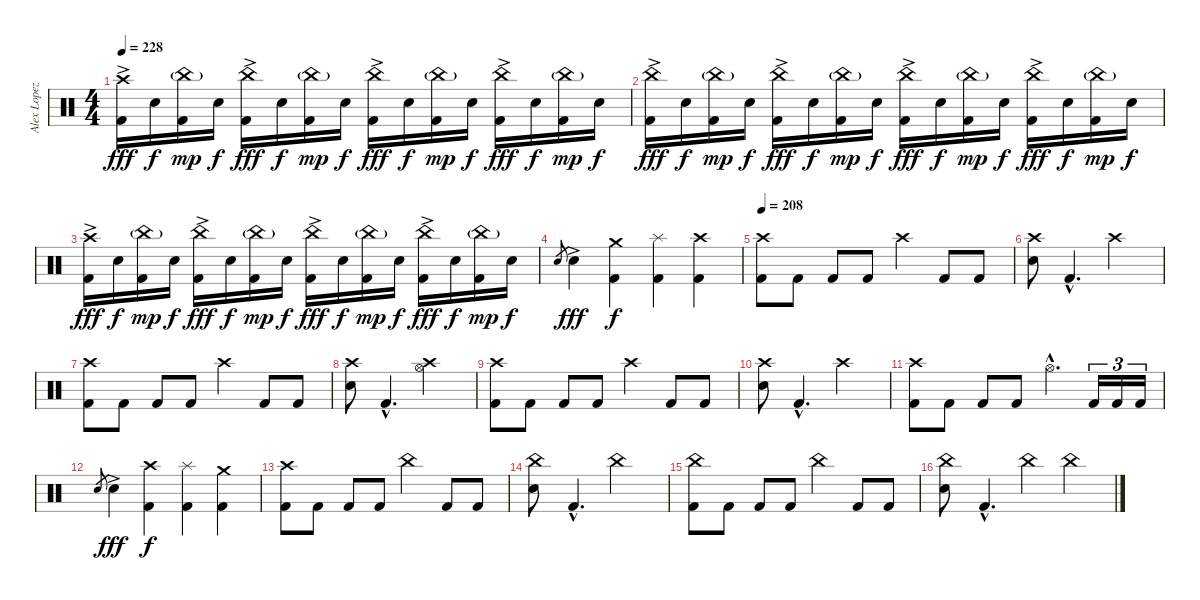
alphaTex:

\track ("Alex Lopez (Drums)" "Alex Lopez") {instrument percussion}
\staff {score}
\articulation defaults
\ts (4 4)
\tempo 228
\clef neutral
\ks c
("Crash high (hit)"{ac} "Kick (hit) 2").16{dy fff} "Snare (hit) 2".16{dy f} ("Kick (hit) 2" "China (hit)"{g}).16{dy mp} "Snare (hit) 2".16{dy f} ("China (hit)"{ac} "Kick (hit) 2").16{dy fff} "Snare (hit) 2".16{dy f} ("Kick (hit) 2" "China (hit)"{g}).16{dy mp} "Snare (hit) 2".16{dy f} ("China (hit)"{ac} "Kick (hit) 2").16{dy fff} "Snare (hit) 2".16{dy f} ("China (hit)"{g} "Kick (hit) 2").16{dy mp} "Snare (hit) 2".16{dy f} ("China (hit)"{ac} "Kick (hit) 2").16{dy fff} "Snare (hit) 2".16{dy f} ("Kick (hit) 2" "China (hit)"{g}).16{dy mp} "Snare (hit) 2".16{dy f} |
("China (hit)"{ac} "Kick (hit) 2").16{dy fff} "Snare (hit) 2".16{dy f} ("Kick (hit) 2" "China (hit)"{g}).16{dy mp} "Snare (hit) 2".16{dy f} ("China (hit)"{ac} "Kick (hit) 2").16{dy fff} "Snare (hit) 2".16{dy f} ("Kick (hit) 2" "China (hit)"{g}).16{dy mp} "Snare (hit) 2".16{dy f} ("China (hit)"{ac} "Kick (hit) 2").16{dy fff} "Snare (hit) 2".16{dy f} ("China (hit)"{g} "Kick (hit) 2").16{dy mp} "Snare (hit) 2".16{dy f} ("China (hit)"{ac} "Kick (hit) 2").16{dy fff} "Snare (hit) 2".16{dy f} ("Kick (hit) 2" "China (hit)"{g}).16{dy mp} "Snare (hit) 2".16{dy f} |
("Crash high (hit)"{ac} "Kick (hit) 2").16{dy fff} "Snare (hit) 2".16{dy f} ("Kick (hit) 2" "China (hit)"{g}).16{dy mp} "Snare (hit) 2".16{dy f} ("China (hit)"{ac} "Kick (hit) 2").16{dy fff} "Snare (hit) 2".16{dy f} ("Kick (hit) 2" "China (hit)"{g}).16{dy mp} "Snare (hit) 2".16{dy f} ("China (hit)"{ac} "Kick (hit) 2").16{dy fff} "Snare (hit) 2".16{dy f} ("China (hit)"{g} "Kick (hit) 2").16{dy mp} "Snare (hit) 2".16{dy f} ("China (hit)"{ac} "Kick (hit) 2").16{dy fff} "Snare (hit) 2".16{dy f} ("Kick (hit) 2" "China (hit)"{g}).16{dy mp} "Snare (hit) 2".16{dy f} |
"Snare (hit) 2".8{gr} "Snare (hit) 2"{ac}.4{dy fff} ("Crash medium (hit)" "Kick (hit) 2").4{dy f} ("Splash (hit)" "Kick (hit) 2").4 ("Crash high (hit)" "Kick (hit) 2").4 |
\tempo 208
("Crash high (hit)" "Kick (hit) 2").8 "Kick (hit) 2".8 "Kick (hit) 2".8 "Kick (hit) 2".8 "Crash high (hit)".4 "Kick (hit) 2".8 "Kick (hit) 2".8 |
("Crash high (hit)" "Snare (hit) 2").8 "Kick (hit) 2"{hac}.4{d} "Crash high (hit)".2 |
("Crash high (hit)" "Kick (hit) 2").8 "Kick (hit) 2".8 "Kick (hit) 2".8 "Kick (hit) 2".8 "Crash high (hit)".4 "Kick (hit) 2".8 "Kick (hit) 2".8 |
("Crash high (hit)" "Snare (hit) 2").8 "Kick (hit) 2"{hac}.4{d} ("Crash high (hit)" "Hi-Hat (open)").2 |
("Crash high (hit)" "Kick (hit) 2").8 "Kick (hit) 2".8 "Kick (hit) 2".8 "Kick (hit) 2".8 "Crash high (hit)".4 "Kick (hit) 2".8 "Kick (hit) 2".8 |
("Crash high (hit)" "Snare (hit) 2").8 "Kick (hit) 2"{hac}.4{d} "Crash high (hit)".2 |
("Crash high (hit)" "Kick (hit) 2").8 "Kick (hit) 2".8 "Kick (hit) 2".8 "Kick (hit) 2".8 "Hi-Hat (open)"{hac}.4{d} "Kick (hit) 2".16{tu (3 2)} "Kick (hit) 2".16{tu (3 2)} "Kick (hit) 2".16{tu (3 2)} |
"Snare (hit) 2".8{gr} "Snare (hit) 2"{ac}.4{dy fff} ("Crash high (hit)" "Kick (hit) 2").4{dy f} ("Splash (hit)" "Kick (hit) 2").4 ("Crash medium (hit)" "Kick (hit) 2").4 |
("Crash high (hit)" "Kick (hit) 2").8 "Kick (hit) 2".8 "Kick (hit) 2".8 "Kick (hit) 2".8 "China (hit)".4 "Kick (hit) 2".8 "Kick (hit) 2".8 |
("China (hit)" "Snare (hit) 2").8 "Kick (hit) 2"{hac}.4{d} "China (hit)".2 |
("China (hit)" "Kick (hit) 2").8 "Kick (hit) 2".8 "Kick (hit) 2".8 "Kick (hit) 2".8 "China (hit)".4 "Kick (hit) 2".8 "Kick (hit) 2".8 |
("China (hit)" "Snare (hit) 2").8 "Kick (hit) 2"{hac}.4{d} "China (hit)".4{balance 16} "China (hit)".4{balance 0}
